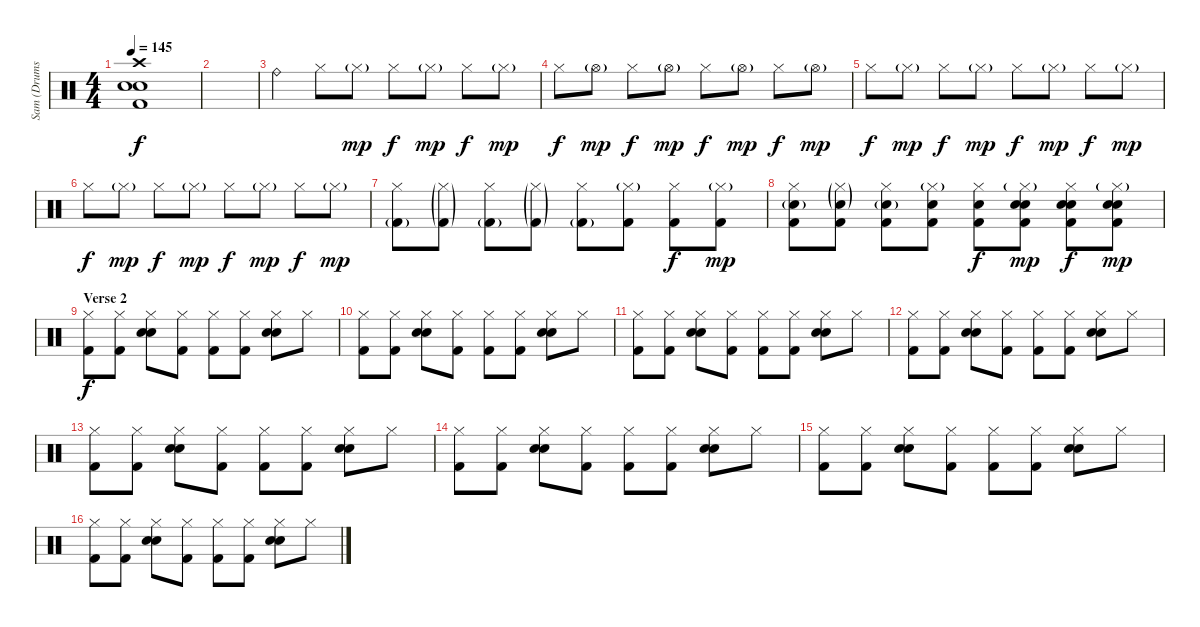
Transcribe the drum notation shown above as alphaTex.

\track ("Sam (Drums)" "Sam (Drums") {instrument percussion}
\staff {score}
\articulation defaults
\ts (4 4)
\tempo 145
\clef neutral
\ks c
("Crash high (hit)" "Electric Snare (hit)" "Snare (hit) 2" "Kick (hit) 2").1{dy f} |
|
"Ride (bell)".4 "Hi-Hat (closed)".8 "Hi-Hat (closed)"{g}.8{dy mp} "Hi-Hat (closed)".8{dy f} "Hi-Hat (closed)"{g}.8{dy mp} "Hi-Hat (closed)".8{dy f} "Hi-Hat (closed)"{g}.8{dy mp} |
"Hi-Hat (closed)".8{dy f} "Hi-Hat (open)"{g}.8{dy mp} "Hi-Hat (closed)".8{dy f} "Hi-Hat (open)"{g}.8{dy mp} "Hi-Hat (closed)".8{dy f} "Hi-Hat (open)"{g}.8{dy mp} "Hi-Hat (closed)".8{dy f} "Hi-Hat (open)"{g}.8{dy mp} |
"Hi-Hat (closed)".8{dy f} "Hi-Hat (closed)"{g}.8{dy mp} "Hi-Hat (closed)".8{dy f} "Hi-Hat (closed)"{g}.8{dy mp} "Hi-Hat (closed)".8{dy f} "Hi-Hat (closed)"{g}.8{dy mp} "Hi-Hat (closed)".8{dy f} "Hi-Hat (closed)"{g}.8{dy mp} |
"Hi-Hat (closed)".8{dy f} "Hi-Hat (closed)"{g}.8{dy mp} "Hi-Hat (closed)".8{dy f} "Hi-Hat (closed)"{g}.8{dy mp} "Hi-Hat (closed)".8{dy f} "Hi-Hat (closed)"{g}.8{dy mp} "Hi-Hat (closed)".8{dy f} "Hi-Hat (closed)"{g}.8{dy mp} |
("Hi-Hat (closed)" "Kick (hit) 2"{g}).8 ("Hi-Hat (closed)"{g} "Kick (hit) 2"{g}).8 ("Hi-Hat (closed)" "Kick (hit) 2"{g}).8 ("Hi-Hat (closed)"{g} "Kick (hit) 2"{g}).8 ("Hi-Hat (closed)" "Kick (hit) 2"{g}).8 ("Hi-Hat (closed)"{g} "Kick (hit) 2").8 ("Hi-Hat (closed)" "Kick (hit) 2").8{dy f} ("Hi-Hat (closed)"{g} "Kick (hit) 2").8{dy mp} |
("Hi-Hat (closed)" "Electric Snare (hit)"{g} "Kick (hit) 2").8 ("Hi-Hat (closed)"{g} "Electric Snare (hit)"{g} "Kick (hit) 2").8 ("Hi-Hat (closed)" "Electric Snare (hit)"{g} "Kick (hit) 2").8 ("Hi-Hat (closed)"{g} "Electric Snare (hit)" "Kick (hit) 2").8 ("Hi-Hat (closed)" "Electric Snare (hit)" "Kick (hit) 2").8{dy f} ("Hi-Hat (closed)"{g} "Electric Snare (hit)" "Snare (hit) 2" "Kick (hit) 2").8{dy mp} ("Hi-Hat (closed)" "Electric Snare (hit)" "Snare (hit) 2" "Kick (hit) 2").8{dy f} ("Hi-Hat (closed)"{g} "Electric Snare (hit)" "Snare (hit) 2" "Kick (hit) 2").8{dy mp} |
\section ("" "Verse 2")
("Hi-Hat (closed)" "Kick (hit) 2").8{dy f} ("Hi-Hat (closed)" "Kick (hit) 2").8 ("Hi-Hat (closed)" "Electric Snare (hit)" "Snare (hit) 2").8 ("Hi-Hat (closed)" "Kick (hit) 2").8 ("Hi-Hat (closed)" "Kick (hit) 2").8 ("Hi-Hat (closed)" "Kick (hit) 2").8 ("Hi-Hat (closed)" "Electric Snare (hit)" "Snare (hit) 2").8 "Hi-Hat (closed)".8 |
("Hi-Hat (closed)" "Kick (hit) 2").8 ("Hi-Hat (closed)" "Kick (hit) 2").8 ("Hi-Hat (closed)" "Electric Snare (hit)" "Snare (hit) 2").8 ("Hi-Hat (closed)" "Kick (hit) 2").8 ("Hi-Hat (closed)" "Kick (hit) 2").8 ("Hi-Hat (closed)" "Kick (hit) 2").8 ("Hi-Hat (closed)" "Electric Snare (hit)" "Snare (hit) 2").8 "Hi-Hat (closed)".8 |
("Hi-Hat (closed)" "Kick (hit) 2").8 ("Hi-Hat (closed)" "Kick (hit) 2").8 ("Hi-Hat (closed)" "Electric Snare (hit)" "Snare (hit) 2").8 ("Hi-Hat (closed)" "Kick (hit) 2").8 ("Hi-Hat (closed)" "Kick (hit) 2").8 ("Hi-Hat (closed)" "Kick (hit) 2").8 ("Hi-Hat (closed)" "Electric Snare (hit)" "Snare (hit) 2").8 "Hi-Hat (closed)".8 |
("Hi-Hat (closed)" "Kick (hit) 2").8 ("Hi-Hat (closed)" "Kick (hit) 2").8 ("Hi-Hat (closed)" "Electric Snare (hit)" "Snare (hit) 2").8 ("Hi-Hat (closed)" "Kick (hit) 2").8 ("Hi-Hat (closed)" "Kick (hit) 2").8 ("Hi-Hat (closed)" "Kick (hit) 2").8 ("Hi-Hat (closed)" "Electric Snare (hit)" "Snare (hit) 2").8 "Hi-Hat (closed)".8 |
("Hi-Hat (closed)" "Kick (hit) 2").8 ("Hi-Hat (closed)" "Kick (hit) 2").8 ("Hi-Hat (closed)" "Electric Snare (hit)" "Snare (hit) 2").8 ("Hi-Hat (closed)" "Kick (hit) 2").8 ("Hi-Hat (closed)" "Kick (hit) 2").8 ("Hi-Hat (closed)" "Kick (hit) 2").8 ("Hi-Hat (closed)" "Electric Snare (hit)" "Snare (hit) 2").8 "Hi-Hat (closed)".8 |
("Hi-Hat (closed)" "Kick (hit) 2").8 ("Hi-Hat (closed)" "Kick (hit) 2").8 ("Hi-Hat (closed)" "Electric Snare (hit)" "Snare (hit) 2").8 ("Hi-Hat (closed)" "Kick (hit) 2").8 ("Hi-Hat (closed)" "Kick (hit) 2").8 ("Hi-Hat (closed)" "Kick (hit) 2").8 ("Hi-Hat (closed)" "Electric Snare (hit)" "Snare (hit) 2").8 "Hi-Hat (closed)".8 |
("Hi-Hat (closed)" "Kick (hit) 2").8 ("Hi-Hat (closed)" "Kick (hit) 2").8 ("Hi-Hat (closed)" "Electric Snare (hit)" "Snare (hit) 2").8 ("Hi-Hat (closed)" "Kick (hit) 2").8 ("Hi-Hat (closed)" "Kick (hit) 2").8 ("Hi-Hat (closed)" "Kick (hit) 2").8 ("Hi-Hat (closed)" "Electric Snare (hit)" "Snare (hit) 2").8 "Hi-Hat (closed)".8 |
("Hi-Hat (closed)" "Kick (hit) 2").8 ("Hi-Hat (closed)" "Kick (hit) 2").8 ("Hi-Hat (closed)" "Electric Snare (hit)" "Snare (hit) 2").8 ("Hi-Hat (closed)" "Kick (hit) 2").8 ("Hi-Hat (closed)" "Kick (hit) 2").8 ("Hi-Hat (closed)" "Kick (hit) 2").8 ("Hi-Hat (closed)" "Electric Snare (hit)" "Snare (hit) 2").8 "Hi-Hat (closed)".8
